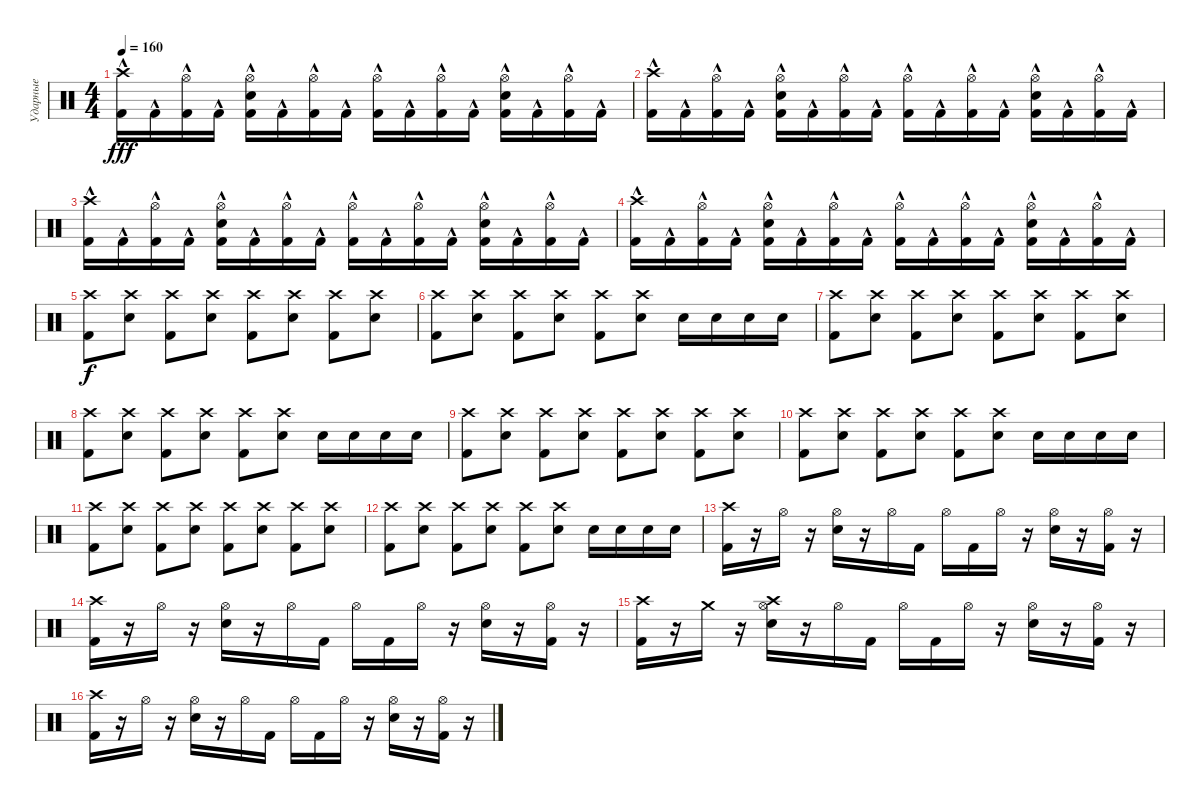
\track ("Ударные" "Ударные") {instrument percussion}
\staff {score}
\articulation defaults
\ts (4 4)
\tempo 160
\clef neutral
\ks c
("Crash high (hit)" "Kick (hit) 2"{hac}).16{dy fff} "Kick (hit) 2"{hac}.16 ("Hi-Hat (open)" "Kick (hit) 2"{hac}).16 "Kick (hit) 2"{hac}.16 ("Hi-Hat (open)" "Snare (hit) 2" "Kick (hit) 2"{hac}).16 "Kick (hit) 2"{hac}.16 ("Hi-Hat (open)" "Kick (hit) 2"{hac}).16 "Kick (hit) 2"{hac}.16 ("Hi-Hat (open)" "Kick (hit) 2"{hac}).16 "Kick (hit) 2"{hac}.16 ("Hi-Hat (open)" "Kick (hit) 2"{hac}).16 "Kick (hit) 2"{hac}.16 ("Hi-Hat (open)" "Snare (hit) 2" "Kick (hit) 2"{hac}).16 "Kick (hit) 2"{hac}.16 ("Hi-Hat (open)" "Kick (hit) 2"{hac}).16 "Kick (hit) 2"{hac}.16 |
("Crash high (hit)" "Kick (hit) 2"{hac}).16 "Kick (hit) 2"{hac}.16 ("Hi-Hat (open)" "Kick (hit) 2"{hac}).16 "Kick (hit) 2"{hac}.16 ("Hi-Hat (open)" "Snare (hit) 2" "Kick (hit) 2"{hac}).16 "Kick (hit) 2"{hac}.16 ("Hi-Hat (open)" "Kick (hit) 2"{hac}).16 "Kick (hit) 2"{hac}.16 ("Hi-Hat (open)" "Kick (hit) 2"{hac}).16 "Kick (hit) 2"{hac}.16 ("Hi-Hat (open)" "Kick (hit) 2"{hac}).16 "Kick (hit) 2"{hac}.16 ("Hi-Hat (open)" "Snare (hit) 2" "Kick (hit) 2"{hac}).16 "Kick (hit) 2"{hac}.16 ("Hi-Hat (open)" "Kick (hit) 2"{hac}).16 "Kick (hit) 2"{hac}.16 |
("Crash high (hit)" "Kick (hit) 2"{hac}).16 "Kick (hit) 2"{hac}.16 ("Hi-Hat (open)" "Kick (hit) 2"{hac}).16 "Kick (hit) 2"{hac}.16 ("Hi-Hat (open)" "Snare (hit) 2" "Kick (hit) 2"{hac}).16 "Kick (hit) 2"{hac}.16 ("Hi-Hat (open)" "Kick (hit) 2"{hac}).16 "Kick (hit) 2"{hac}.16 ("Hi-Hat (open)" "Kick (hit) 2"{hac}).16 "Kick (hit) 2"{hac}.16 ("Hi-Hat (open)" "Kick (hit) 2"{hac}).16 "Kick (hit) 2"{hac}.16 ("Hi-Hat (open)" "Snare (hit) 2" "Kick (hit) 2"{hac}).16 "Kick (hit) 2"{hac}.16 ("Hi-Hat (open)" "Kick (hit) 2"{hac}).16 "Kick (hit) 2"{hac}.16 |
("Crash high (hit)" "Kick (hit) 2"{hac}).16 "Kick (hit) 2"{hac}.16 ("Hi-Hat (open)" "Kick (hit) 2"{hac}).16 "Kick (hit) 2"{hac}.16 ("Hi-Hat (open)" "Snare (hit) 2" "Kick (hit) 2"{hac}).16 "Kick (hit) 2"{hac}.16 ("Hi-Hat (open)" "Kick (hit) 2"{hac}).16 "Kick (hit) 2"{hac}.16 ("Hi-Hat (open)" "Kick (hit) 2"{hac}).16 "Kick (hit) 2"{hac}.16 ("Hi-Hat (open)" "Kick (hit) 2"{hac}).16 "Kick (hit) 2"{hac}.16 ("Hi-Hat (open)" "Snare (hit) 2" "Kick (hit) 2"{hac}).16 "Kick (hit) 2"{hac}.16 ("Hi-Hat (open)" "Kick (hit) 2"{hac}).16 "Kick (hit) 2"{hac}.16 |
("Crash high (hit)" "Kick (hit) 2").8{dy f} ("Crash high (hit)" "Electric Snare (hit)").8 ("Crash high (hit)" "Kick (hit) 2").8 ("Crash high (hit)" "Electric Snare (hit)").8 ("Crash high (hit)" "Kick (hit) 2").8 ("Crash high (hit)" "Electric Snare (hit)").8 ("Crash high (hit)" "Kick (hit) 2").8 ("Crash high (hit)" "Electric Snare (hit)").8 |
("Crash high (hit)" "Kick (hit) 2").8 ("Crash high (hit)" "Electric Snare (hit)").8 ("Crash high (hit)" "Kick (hit) 2").8 ("Crash high (hit)" "Electric Snare (hit)").8 ("Crash high (hit)" "Kick (hit) 2").8 ("Crash high (hit)" "Electric Snare (hit)").8 "Electric Snare (hit)".16 "Electric Snare (hit)".16 "Electric Snare (hit)".16 "Electric Snare (hit)".16 |
("Crash high (hit)" "Kick (hit) 2").8 ("Crash high (hit)" "Electric Snare (hit)").8 ("Crash high (hit)" "Kick (hit) 2").8 ("Crash high (hit)" "Electric Snare (hit)").8 ("Crash high (hit)" "Kick (hit) 2").8 ("Crash high (hit)" "Electric Snare (hit)").8 ("Crash high (hit)" "Kick (hit) 2").8 ("Crash high (hit)" "Electric Snare (hit)").8 |
("Crash high (hit)" "Kick (hit) 2").8 ("Crash high (hit)" "Electric Snare (hit)").8 ("Crash high (hit)" "Kick (hit) 2").8 ("Crash high (hit)" "Electric Snare (hit)").8 ("Crash high (hit)" "Kick (hit) 2").8 ("Crash high (hit)" "Electric Snare (hit)").8 "Electric Snare (hit)".16 "Electric Snare (hit)".16 "Electric Snare (hit)".16 "Electric Snare (hit)".16 |
("Crash high (hit)" "Kick (hit) 2").8 ("Crash high (hit)" "Electric Snare (hit)").8 ("Crash high (hit)" "Kick (hit) 2").8 ("Crash high (hit)" "Electric Snare (hit)").8 ("Crash high (hit)" "Kick (hit) 2").8 ("Crash high (hit)" "Electric Snare (hit)").8 ("Crash high (hit)" "Kick (hit) 2").8 ("Crash high (hit)" "Electric Snare (hit)").8 |
("Crash high (hit)" "Kick (hit) 2").8 ("Crash high (hit)" "Electric Snare (hit)").8 ("Crash high (hit)" "Kick (hit) 2").8 ("Crash high (hit)" "Electric Snare (hit)").8 ("Crash high (hit)" "Kick (hit) 2").8 ("Crash high (hit)" "Electric Snare (hit)").8 "Electric Snare (hit)".16 "Electric Snare (hit)".16 "Electric Snare (hit)".16 "Electric Snare (hit)".16 |
("Crash high (hit)" "Kick (hit) 2").8 ("Crash high (hit)" "Electric Snare (hit)").8 ("Crash high (hit)" "Kick (hit) 2").8 ("Crash high (hit)" "Electric Snare (hit)").8 ("Crash high (hit)" "Kick (hit) 2").8 ("Crash high (hit)" "Electric Snare (hit)").8 ("Crash high (hit)" "Kick (hit) 2").8 ("Crash high (hit)" "Electric Snare (hit)").8 |
("Crash high (hit)" "Kick (hit) 2").8 ("Crash high (hit)" "Electric Snare (hit)").8 ("Crash high (hit)" "Kick (hit) 2").8 ("Crash high (hit)" "Electric Snare (hit)").8 ("Crash high (hit)" "Kick (hit) 2").8 ("Crash high (hit)" "Electric Snare (hit)").8 "Electric Snare (hit)".16 "Electric Snare (hit)".16 "Electric Snare (hit)".16 "Electric Snare (hit)".16 |
("Crash high (hit)" "Kick (hit) 2").16 r.16 "Hi-Hat (open)".16 r.16 ("Hi-Hat (open)" "Snare (hit) 2").16 r.16 "Hi-Hat (open)".16 "Kick (hit) 2".16 "Hi-Hat (open)".16 "Kick (hit) 2".16 "Hi-Hat (open)".16 r.16 ("Hi-Hat (open)" "Snare (hit) 2").16 r.16 ("Hi-Hat (open)" "Kick (hit) 2").16 r.16 |
("Crash high (hit)" "Kick (hit) 2").16 r.16 "Hi-Hat (open)".16 r.16 ("Hi-Hat (open)" "Snare (hit) 2").16 r.16 "Hi-Hat (open)".16 "Kick (hit) 2".16 "Hi-Hat (open)".16 "Kick (hit) 2".16 "Hi-Hat (open)".16 r.16 ("Hi-Hat (open)" "Snare (hit) 2").16 r.16 ("Hi-Hat (open)" "Kick (hit) 2").16 r.16 |
("Crash high (hit)" "Kick (hit) 2").16 r.16 "Crash medium (hit)".16 r.16 ("Crash high (hit)" "Hi-Hat (open)" "Snare (hit) 2").16 r.16 "Hi-Hat (open)".16 "Kick (hit) 2".16 "Hi-Hat (open)".16 "Kick (hit) 2".16 "Hi-Hat (open)".16 r.16 ("Hi-Hat (open)" "Snare (hit) 2").16 r.16 ("Hi-Hat (open)" "Kick (hit) 2").16 r.16 |
("Crash high (hit)" "Kick (hit) 2").16 r.16 "Hi-Hat (open)".16 r.16 ("Hi-Hat (open)" "Snare (hit) 2").16 r.16 "Hi-Hat (open)".16 "Kick (hit) 2".16 "Hi-Hat (open)".16 "Kick (hit) 2".16 "Hi-Hat (open)".16 r.16 ("Hi-Hat (open)" "Snare (hit) 2").16 r.16 ("Hi-Hat (open)" "Kick (hit) 2").16 r.16
